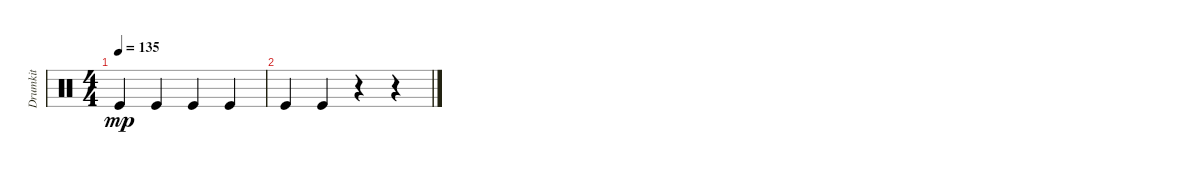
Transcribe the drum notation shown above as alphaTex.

\track ("Drumkit" "Drumkit") {instrument percussion}
\staff {score}
\articulation defaults
\ts (4 4)
\tempo 135
\clef neutral
\ks c "Kick (hit)".4{dy mp} "Kick (hit)".4 "Kick (hit)".4 "Kick (hit)".4
|
"Kick (hit)".4 "Kick (hit)".4 r.4 r.4
